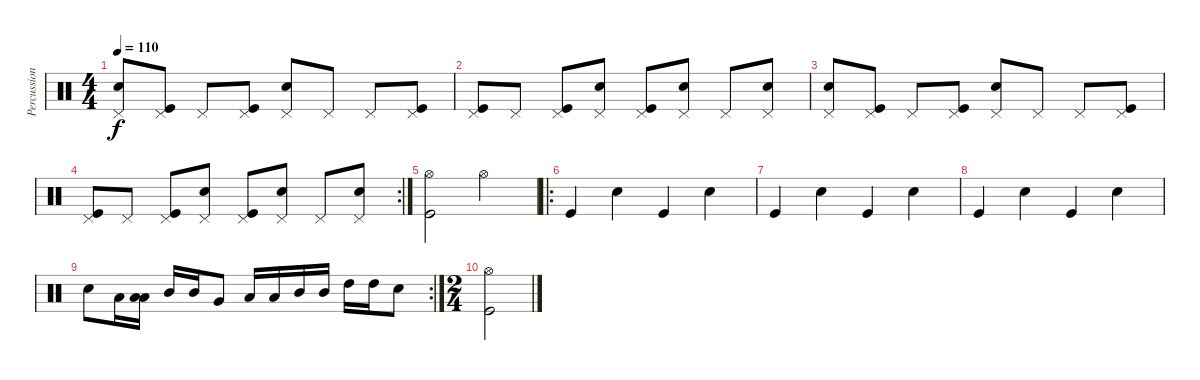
\track ("Percussion" "Percussion") {instrument percussion}
\staff {score}
\articulation defaults
\ts (4 4)
\tempo 110
\clef neutral
\ks c
("Electric Snare (hit)" "Pedal Hi-Hat (hit)").8{dy f} ("Kick (hit)" "Pedal Hi-Hat (hit)").8 "Pedal Hi-Hat (hit)".8 ("Kick (hit)" "Pedal Hi-Hat (hit)").8 ("Electric Snare (hit)" "Pedal Hi-Hat (hit)").8 "Pedal Hi-Hat (hit)".8 "Pedal Hi-Hat (hit)".8 ("Kick (hit)" "Pedal Hi-Hat (hit)").8 |
("Pedal Hi-Hat (hit)" "Kick (hit)").8 "Pedal Hi-Hat (hit)".8 ("Pedal Hi-Hat (hit)" "Kick (hit)").8 ("Pedal Hi-Hat (hit)" "Electric Snare (hit)").8 ("Pedal Hi-Hat (hit)" "Kick (hit)").8 ("Pedal Hi-Hat (hit)" "Electric Snare (hit)").8 "Pedal Hi-Hat (hit)".8 ("Pedal Hi-Hat (hit)" "Electric Snare (hit)").8 |
("Electric Snare (hit)" "Pedal Hi-Hat (hit)").8 ("Kick (hit)" "Pedal Hi-Hat (hit)").8 "Pedal Hi-Hat (hit)".8 ("Kick (hit)" "Pedal Hi-Hat (hit)").8 ("Electric Snare (hit)" "Pedal Hi-Hat (hit)").8 "Pedal Hi-Hat (hit)".8 "Pedal Hi-Hat (hit)".8 ("Kick (hit)" "Pedal Hi-Hat (hit)").8 |
\rc 2
("Pedal Hi-Hat (hit)" "Kick (hit)").8 "Pedal Hi-Hat (hit)".8 ("Pedal Hi-Hat (hit)" "Kick (hit)").8 ("Pedal Hi-Hat (hit)" "Electric Snare (hit)").8 ("Pedal Hi-Hat (hit)" "Kick (hit)").8 ("Pedal Hi-Hat (hit)" "Electric Snare (hit)").8 "Pedal Hi-Hat (hit)".8 ("Pedal Hi-Hat (hit)" "Electric Snare (hit)").8 |
("Hi-Hat (open)" "Kick (hit)").2 "Hi-Hat (open)".2 |
\ro "Kick (hit)".4 "Electric Snare (hit)".4 "Kick (hit)".4 "Electric Snare (hit)".4
|
"Kick (hit)".4 "Electric Snare (hit)".4 "Kick (hit)".4 "Electric Snare (hit)".4 |
"Kick (hit)".4 "Electric Snare (hit)".4 "Kick (hit)".4 "Electric Snare (hit)".4 |
\rc 2 "Electric Snare (hit)".8 "Low Tom (hit)".16
("Low Tom (hit)" "Low Tom (hit)").16 "Mid Tom (hit)".16 "Mid Tom (hit)".16 "Very Low Tom (hit)".8 "Low Tom (hit)".16 "Low Tom (hit)".16 "Mid Tom (hit)".16 "Mid Tom (hit)".16 "High Tom (hit)".16 "High Tom (hit)".16 "Electric Snare (hit)".8 |
\ts (2 4)
("Hi-Hat (open)" "Kick (hit)").2
